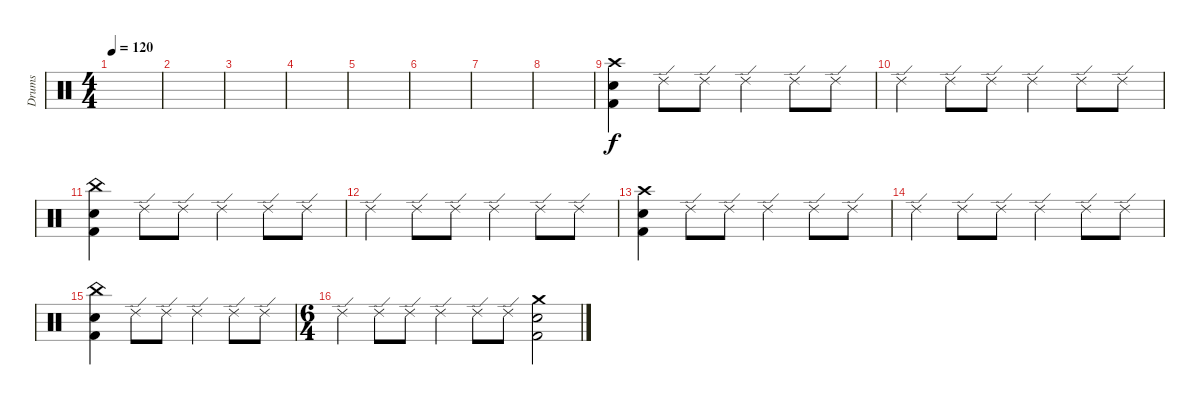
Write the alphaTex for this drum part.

\track ("Drums" "Drums") {instrument percussion}
\staff {score}
\articulation defaults
\ts (4 4)
\tempo 120
\clef neutral
\ks c
|
|
|
|
|
|
|
|
("Crash high (hit)" "Snare (hit) 2" "Kick (hit) 2").4 "Ride (edge) 2".8 "Ride (edge) 2".8 "Ride (edge) 2".4 "Ride (edge) 2".8 "Ride (edge) 2".8 |
"Ride (edge) 2".4 "Ride (edge) 2".8 "Ride (edge) 2".8 "Ride (edge) 2".4 "Ride (edge) 2".8 "Ride (edge) 2".8 |
("China (hit)" "Snare (hit) 2" "Kick (hit) 2").4 "Ride (edge) 2".8 "Ride (edge) 2".8 "Ride (edge) 2".4 "Ride (edge) 2".8 "Ride (edge) 2".8 |
"Ride (edge) 2".4 "Ride (edge) 2".8 "Ride (edge) 2".8 "Ride (edge) 2".4 "Ride (edge) 2".8 "Ride (edge) 2".8 |
("Crash high (hit)" "Snare (hit) 2" "Kick (hit) 2").4 "Ride (edge) 2".8 "Ride (edge) 2".8 "Ride (edge) 2".4 "Ride (edge) 2".8 "Ride (edge) 2".8 |
"Ride (edge) 2".4 "Ride (edge) 2".8 "Ride (edge) 2".8 "Ride (edge) 2".4 "Ride (edge) 2".8 "Ride (edge) 2".8 |
("China (hit)" "Snare (hit) 2" "Kick (hit) 2").4 "Ride (edge) 2".8 "Ride (edge) 2".8 "Ride (edge) 2".4 "Ride (edge) 2".8 "Ride (edge) 2".8 |
\ts (6 4)
"Ride (edge) 2".4 "Ride (edge) 2".8 "Ride (edge) 2".8 "Ride (edge) 2".4 "Ride (edge) 2".8 "Ride (edge) 2".8 ("Crash medium (hit)" "Snare (hit) 2" "Kick (hit) 2").2
